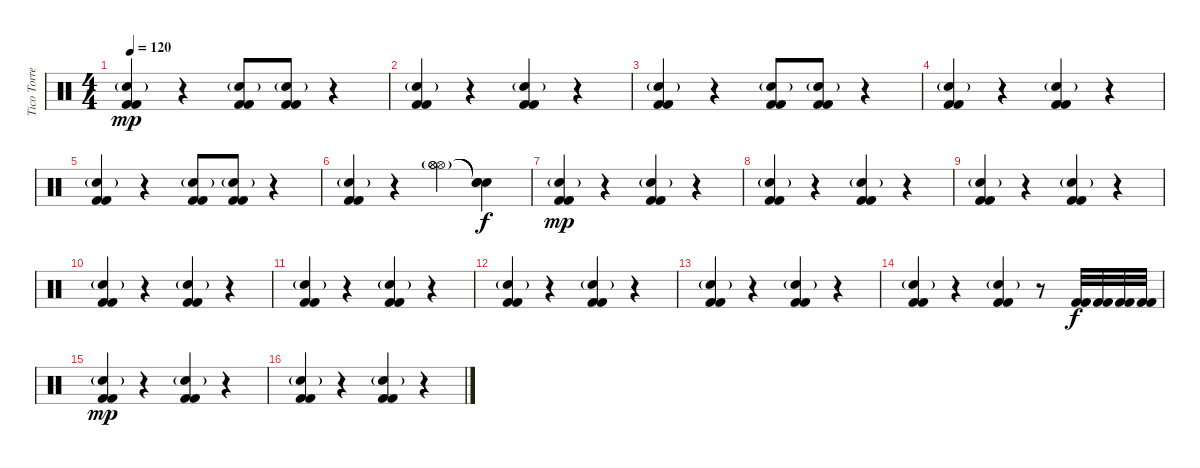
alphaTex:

\track ("Tico Torres" "Tico Torre") {instrument percussion}
\staff {score}
\articulation defaults
\ts (4 4)
\tempo 120
\clef neutral
\ks c
("Electric Snare (hit)"{g} "Kick (hit) 2" "Kick (hit) 2").4{dy mp} r.4 ("Electric Snare (hit)"{g} "Kick (hit) 2" "Kick (hit) 2").8 ("Electric Snare (hit)"{g} "Kick (hit) 2" "Kick (hit) 2").8 r.4 |
("Electric Snare (hit)"{g} "Kick (hit) 2" "Kick (hit) 2").4 r.4 ("Electric Snare (hit)"{g} "Kick (hit) 2" "Kick (hit) 2").4 r.4 |
("Electric Snare (hit)"{g} "Kick (hit) 2" "Kick (hit) 2").4 r.4 ("Electric Snare (hit)"{g} "Kick (hit) 2" "Kick (hit) 2").8 ("Electric Snare (hit)"{g} "Kick (hit) 2" "Kick (hit) 2").8 r.4 |
("Electric Snare (hit)"{g} "Kick (hit) 2" "Kick (hit) 2").4 r.4 ("Electric Snare (hit)"{g} "Kick (hit) 2" "Kick (hit) 2").4 r.4 |
("Electric Snare (hit)"{g} "Kick (hit) 2" "Kick (hit) 2").4 r.4 ("Electric Snare (hit)"{g} "Kick (hit) 2" "Kick (hit) 2").8 ("Electric Snare (hit)"{g} "Kick (hit) 2" "Kick (hit) 2").8 r.4 |
("Electric Snare (hit)"{g} "Kick (hit) 2" "Kick (hit) 2").4 r.4 ("Hi-Hat (open)"{g} "Hi-Hat (open)" "Hi-Hat (open)").4 ("Snare (hit)"{t} "Snare (hit)"{t} "Snare (hit)"{t}).4{dy f} |
("Electric Snare (hit)"{g} "Kick (hit) 2" "Kick (hit) 2").4{dy mp} r.4 ("Electric Snare (hit)"{g} "Kick (hit) 2" "Kick (hit) 2").4 r.4 |
("Electric Snare (hit)"{g} "Kick (hit) 2" "Kick (hit) 2").4 r.4 ("Electric Snare (hit)"{g} "Kick (hit) 2" "Kick (hit) 2").4 r.4 |
("Electric Snare (hit)"{g} "Kick (hit) 2" "Kick (hit) 2").4 r.4 ("Electric Snare (hit)"{g} "Kick (hit) 2" "Kick (hit) 2").4 r.4 |
("Electric Snare (hit)"{g} "Kick (hit) 2" "Kick (hit) 2").4 r.4 ("Electric Snare (hit)"{g} "Kick (hit) 2" "Kick (hit) 2").4 r.4 |
("Electric Snare (hit)"{g} "Kick (hit) 2" "Kick (hit) 2").4 r.4 ("Electric Snare (hit)"{g} "Kick (hit) 2" "Kick (hit) 2").4 r.4 |
("Electric Snare (hit)"{g} "Kick (hit) 2" "Kick (hit) 2").4 r.4 ("Electric Snare (hit)"{g} "Kick (hit) 2" "Kick (hit) 2").4 r.4 |
("Electric Snare (hit)"{g} "Kick (hit) 2" "Kick (hit) 2").4 r.4 ("Electric Snare (hit)"{g} "Kick (hit) 2" "Kick (hit) 2").4 r.4 |
("Electric Snare (hit)"{g} "Kick (hit) 2" "Kick (hit) 2").4 r.4 ("Electric Snare (hit)"{g} "Kick (hit) 2" "Kick (hit) 2").4 r.8 ("Kick (hit) 2" "Kick (hit) 2").32{dy f} ("Kick (hit) 2" "Kick (hit) 2").32 ("Kick (hit) 2" "Kick (hit) 2").32 ("Kick (hit) 2" "Kick (hit) 2").32 |
("Electric Snare (hit)"{g} "Kick (hit) 2" "Kick (hit) 2").4{dy mp} r.4 ("Electric Snare (hit)"{g} "Kick (hit) 2" "Kick (hit) 2").4 r.4 |
("Electric Snare (hit)"{g} "Kick (hit) 2" "Kick (hit) 2").4 r.4 ("Electric Snare (hit)"{g} "Kick (hit) 2" "Kick (hit) 2").4 r.4
